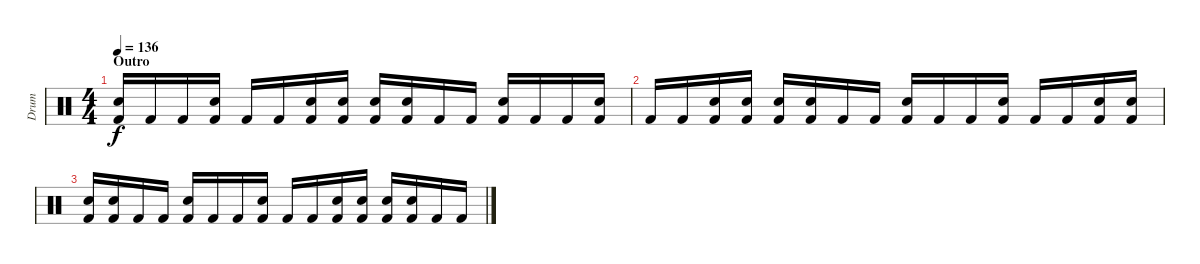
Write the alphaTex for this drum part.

\track ("Drum" "Drum") {instrument percussion}
\staff {score}
\articulation defaults
\ts (4 4)
\section ("" "Outro")
\tempo 136
\clef neutral
\ks c
("Snare (hit) 2" "Kick (hit) 2").16{dy f} "Kick (hit) 2".16 "Kick (hit) 2".16 ("Snare (hit) 2" "Kick (hit) 2").16 "Kick (hit) 2".16 "Kick (hit) 2".16 ("Snare (hit) 2" "Kick (hit) 2").16 ("Snare (hit) 2" "Kick (hit) 2").16 ("Snare (hit) 2" "Kick (hit) 2").16 ("Snare (hit) 2" "Kick (hit) 2").16 "Kick (hit) 2".16 "Kick (hit) 2".16 ("Snare (hit) 2" "Kick (hit) 2").16 "Kick (hit) 2".16 "Kick (hit) 2".16 ("Snare (hit) 2" "Kick (hit) 2").16 |
"Kick (hit) 2".16 "Kick (hit) 2".16 ("Snare (hit) 2" "Kick (hit) 2").16 ("Snare (hit) 2" "Kick (hit) 2").16 ("Snare (hit) 2" "Kick (hit) 2").16 ("Snare (hit) 2" "Kick (hit) 2").16 "Kick (hit) 2".16 "Kick (hit) 2".16 ("Snare (hit) 2" "Kick (hit) 2").16 "Kick (hit) 2".16 "Kick (hit) 2".16 ("Snare (hit) 2" "Kick (hit) 2").16 "Kick (hit) 2".16 "Kick (hit) 2".16 ("Snare (hit) 2" "Kick (hit) 2").16 ("Snare (hit) 2" "Kick (hit) 2").16 |
("Snare (hit) 2" "Kick (hit) 2").16 ("Snare (hit) 2" "Kick (hit) 2").16 "Kick (hit) 2".16 "Kick (hit) 2".16 ("Snare (hit) 2" "Kick (hit) 2").16 "Kick (hit) 2".16 "Kick (hit) 2".16 ("Snare (hit) 2" "Kick (hit) 2").16 "Kick (hit) 2".16 "Kick (hit) 2".16 ("Snare (hit) 2" "Kick (hit) 2").16 ("Snare (hit) 2" "Kick (hit) 2").16 ("Snare (hit) 2" "Kick (hit) 2").16 ("Snare (hit) 2" "Kick (hit) 2").16 "Kick (hit) 2".16 "Kick (hit) 2".16
